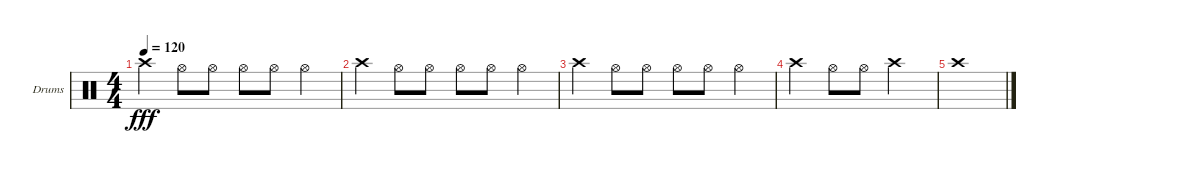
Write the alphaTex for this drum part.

\defaultSystemsLayout 4
\bracketExtendMode groupsimilarinstruments
\firstSystemTrackNameOrientation horizontal
\otherSystemsTrackNameOrientation horizontal
\track ("Пашок" "Drums") {instrument percussion}
\staff {score}
\articulation defaults
\ts (4 4)
\tempo 120
\clef neutral
\ks c "Crash high (hit)".4{dy fff} "Hi-Hat (open)".8 "Hi-Hat (open)".8 "Hi-Hat (open)".8 "Hi-Hat (open)".8 "Hi-Hat (open)".4
|
"Crash high (hit)".4 "Hi-Hat (open)".8 "Hi-Hat (open)".8 "Hi-Hat (open)".8 "Hi-Hat (open)".8 "Hi-Hat (open)".4 |
"Crash high (hit)".4 "Hi-Hat (open)".8 "Hi-Hat (open)".8 "Hi-Hat (open)".8 "Hi-Hat (open)".8 "Hi-Hat (open)".4 |
"Crash high (hit)".4 "Hi-Hat (open)".8 "Hi-Hat (open)".8 "Crash high (hit)".2 |
"Crash high (hit)".1
